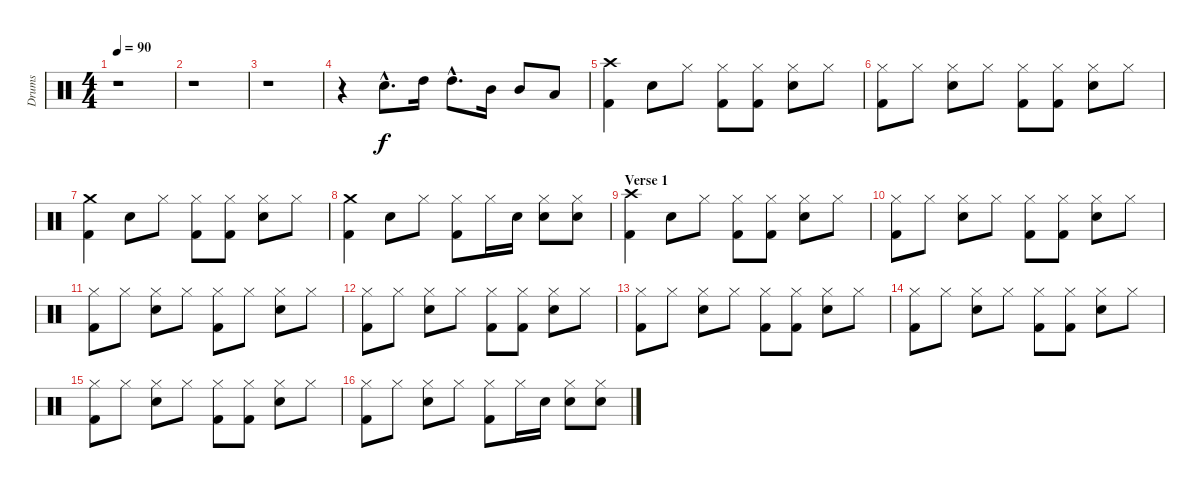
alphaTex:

\track ("Drums" "Drums") {instrument percussion}
\staff {score}
\articulation defaults
\ts (4 4)
\tempo 90
\clef neutral
\ks c
r.1{dy f} |
r.1 |
r.1 |
r.4 "Snare (hit) 2"{hac}.8{d} "High Tom (hit)".16 "High Tom (hit)"{hac}.8{d} "Mid Tom (hit)".16 "Mid Tom (hit)".8 "Low Tom (hit)".8 |
("Kick (hit) 2" "Crash high (hit)").4 "Snare (hit) 2".8 "Hi-Hat (closed)".8 ("Kick (hit) 2" "Hi-Hat (closed)").8 ("Kick (hit) 2" "Hi-Hat (closed)").8 ("Snare (hit) 2" "Hi-Hat (closed)").8 "Hi-Hat (closed)".8 |
("Kick (hit) 2" "Hi-Hat (closed)").8 "Hi-Hat (closed)".8 ("Snare (hit) 2" "Hi-Hat (closed)").8 "Hi-Hat (closed)".8 ("Kick (hit) 2" "Hi-Hat (closed)").8 ("Kick (hit) 2" "Hi-Hat (closed)").8 ("Snare (hit) 2" "Hi-Hat (closed)").8 "Hi-Hat (closed)".8 |
("Kick (hit) 2" "Crash medium (hit)").4 "Snare (hit) 2".8 "Hi-Hat (closed)".8 ("Kick (hit) 2" "Hi-Hat (closed)").8 ("Kick (hit) 2" "Hi-Hat (closed)").8 ("Snare (hit) 2" "Hi-Hat (closed)").8 "Hi-Hat (closed)".8 |
("Kick (hit) 2" "Crash medium (hit)").4 "Snare (hit) 2".8 "Hi-Hat (closed)".8 ("Kick (hit) 2" "Hi-Hat (closed)").8 "Hi-Hat (closed)".16 "Snare (hit) 2".16 ("Snare (hit) 2" "Hi-Hat (closed)").8 ("Snare (hit) 2" "Hi-Hat (closed)").8 |
\section ("" "Verse 1")
("Kick (hit) 2" "Crash high (hit)").4 "Snare (hit) 2".8 "Hi-Hat (closed)".8 ("Kick (hit) 2" "Hi-Hat (closed)").8 ("Kick (hit) 2" "Hi-Hat (closed)").8 ("Snare (hit) 2" "Hi-Hat (closed)").8 "Hi-Hat (closed)".8 |
("Kick (hit) 2" "Hi-Hat (closed)").8 "Hi-Hat (closed)".8 ("Snare (hit) 2" "Hi-Hat (closed)").8 "Hi-Hat (closed)".8 ("Kick (hit) 2" "Hi-Hat (closed)").8 ("Kick (hit) 2" "Hi-Hat (closed)").8 ("Snare (hit) 2" "Hi-Hat (closed)").8 "Hi-Hat (closed)".8 |
("Kick (hit) 2" "Hi-Hat (closed)").8 "Hi-Hat (closed)".8 ("Snare (hit) 2" "Hi-Hat (closed)").8 "Hi-Hat (closed)".8 ("Kick (hit) 2" "Hi-Hat (closed)").8 "Hi-Hat (closed)".8 ("Snare (hit) 2" "Hi-Hat (closed)").8 "Hi-Hat (closed)".8 |
("Kick (hit) 2" "Hi-Hat (closed)").8 "Hi-Hat (closed)".8 ("Snare (hit) 2" "Hi-Hat (closed)").8 "Hi-Hat (closed)".8 ("Kick (hit) 2" "Hi-Hat (closed)").8 ("Kick (hit) 2" "Hi-Hat (closed)").8 ("Snare (hit) 2" "Hi-Hat (closed)").8 "Hi-Hat (closed)".8 |
("Kick (hit) 2" "Hi-Hat (closed)").8 "Hi-Hat (closed)".8 ("Snare (hit) 2" "Hi-Hat (closed)").8 "Hi-Hat (closed)".8 ("Kick (hit) 2" "Hi-Hat (closed)").8 ("Kick (hit) 2" "Hi-Hat (closed)").8 ("Snare (hit) 2" "Hi-Hat (closed)").8 "Hi-Hat (closed)".8 |
("Kick (hit) 2" "Hi-Hat (closed)").8 "Hi-Hat (closed)".8 ("Snare (hit) 2" "Hi-Hat (closed)").8 "Hi-Hat (closed)".8 ("Kick (hit) 2" "Hi-Hat (closed)").8 ("Kick (hit) 2" "Hi-Hat (closed)").8 ("Snare (hit) 2" "Hi-Hat (closed)").8 "Hi-Hat (closed)".8 |
("Kick (hit) 2" "Hi-Hat (closed)").8 "Hi-Hat (closed)".8 ("Snare (hit) 2" "Hi-Hat (closed)").8 "Hi-Hat (closed)".8 ("Kick (hit) 2" "Hi-Hat (closed)").8 ("Kick (hit) 2" "Hi-Hat (closed)").8 ("Snare (hit) 2" "Hi-Hat (closed)").8 "Hi-Hat (closed)".8 |
("Kick (hit) 2" "Hi-Hat (closed)").8 "Hi-Hat (closed)".8 ("Snare (hit) 2" "Hi-Hat (closed)").8 "Hi-Hat (closed)".8 ("Kick (hit) 2" "Hi-Hat (closed)").8 "Hi-Hat (closed)".16 "Snare (hit) 2".16 ("Snare (hit) 2" "Hi-Hat (closed)").8 ("Snare (hit) 2" "Hi-Hat (closed)").8
